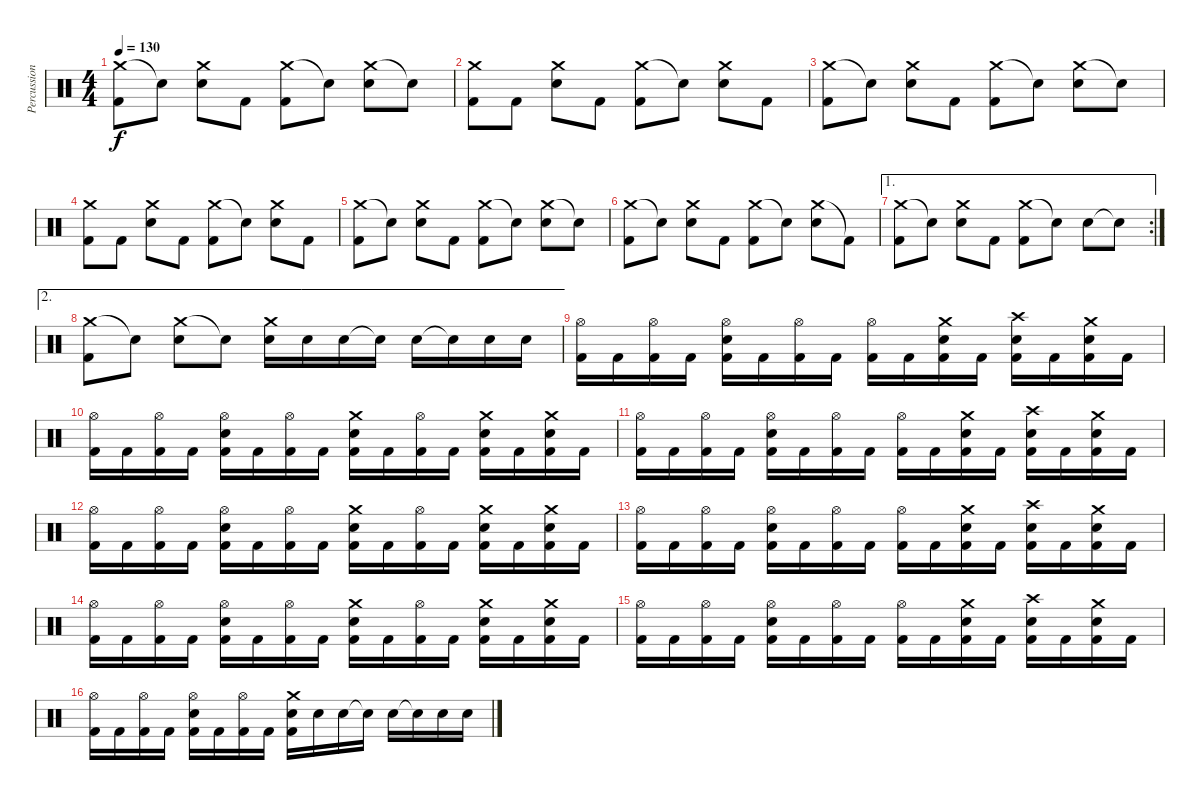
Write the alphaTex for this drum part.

\track ("Percussion" "Percussion") {instrument percussion}
\staff {score}
\articulation defaults
\ts (4 4)
\tempo 130
\clef neutral
\ks c
("Crash medium (hit)" "Kick (hit) 2").8{dy f} "Snare (hit)"{t}.8 ("Crash medium (hit)" "Electric Snare (hit)").8 "Kick (hit) 2".8 ("Crash medium (hit)" "Kick (hit) 2").8 "Snare (hit)"{t}.8 ("Crash medium (hit)" "Electric Snare (hit)").8 "Snare (hit)"{t}.8 |
("Crash medium (hit)" "Kick (hit) 2").8 "Kick (hit) 2".8 ("Crash medium (hit)" "Electric Snare (hit)").8 "Kick (hit) 2".8 ("Crash medium (hit)" "Kick (hit) 2").8 "Snare (hit)"{t}.8 ("Crash medium (hit)" "Electric Snare (hit)").8 "Kick (hit) 2".8 |
("Crash medium (hit)" "Kick (hit) 2").8 "Snare (hit)"{t}.8 ("Crash medium (hit)" "Electric Snare (hit)").8 "Kick (hit) 2".8 ("Crash medium (hit)" "Kick (hit) 2").8 "Snare (hit)"{t}.8 ("Crash medium (hit)" "Electric Snare (hit)").8 "Snare (hit)"{t}.8 |
("Crash medium (hit)" "Kick (hit) 2").8 "Kick (hit) 2".8 ("Crash medium (hit)" "Electric Snare (hit)").8 "Kick (hit) 2".8 ("Crash medium (hit)" "Kick (hit) 2").8 "Snare (hit)"{t}.8 ("Crash medium (hit)" "Electric Snare (hit)").8 "Kick (hit) 2".8 |
("Crash medium (hit)" "Kick (hit) 2").8 "Snare (hit)"{t}.8 ("Crash medium (hit)" "Electric Snare (hit)").8 "Kick (hit) 2".8 ("Crash medium (hit)" "Kick (hit) 2").8 "Snare (hit)"{t}.8 ("Crash medium (hit)" "Electric Snare (hit)").8 "Snare (hit)"{t}.8 |
("Crash medium (hit)" "Kick (hit) 2").8 "Snare (hit)"{t}.8 ("Crash medium (hit)" "Electric Snare (hit)").8 "Kick (hit) 2".8 ("Crash medium (hit)" "Kick (hit) 2").8 "Snare (hit)"{t}.8 ("Crash medium (hit)" "Electric Snare (hit)").8 "Kick (hit) 2"{t}.8 |
\ae 1
\rc 2
("Crash medium (hit)" "Kick (hit) 2").8 "Electric Snare (hit)"{t}.8 ("Crash medium (hit)" "Electric Snare (hit)").8 "Kick (hit) 2".8 ("Crash medium (hit)" "Kick (hit) 2").8 "Electric Snare (hit)"{t}.8 "Electric Snare (hit)".8 "Snare (hit)"{t}.8 |
\ae 2
("Crash medium (hit)" "Kick (hit) 2").8 "Snare (hit)"{t}.8 ("Crash medium (hit)" "Electric Snare (hit)").8 "Snare (hit)"{t}.8 ("Crash medium (hit)" "Electric Snare (hit)").16 "Electric Snare (hit)".16 "Electric Snare (hit)".16 "Electric Snare (hit)"{t}.16 "Electric Snare (hit)".16 "Electric Snare (hit)"{t}.16 "Electric Snare (hit)".16 "Electric Snare (hit)".16 |
("Hi-Hat (open)" "Kick (hit) 2").16 "Kick (hit) 2".16 ("Hi-Hat (open)" "Kick (hit) 2").16 "Kick (hit) 2".16 ("Hi-Hat (open)" "Electric Snare (hit)" "Kick (hit) 2").16 "Kick (hit) 2".16 ("Hi-Hat (open)" "Kick (hit) 2").16 "Kick (hit) 2".16 ("Hi-Hat (open)" "Kick (hit) 2").16 "Kick (hit) 2".16 ("Crash medium (hit)" "Electric Snare (hit)" "Kick (hit) 2").16 "Kick (hit) 2".16 ("Crash high (hit)" "Electric Snare (hit)" "Kick (hit) 2").16 "Kick (hit) 2".16 ("Crash medium (hit)" "Electric Snare (hit)" "Kick (hit) 2").16 "Kick (hit) 2".16 |
("Hi-Hat (open)" "Kick (hit) 2").16 "Kick (hit) 2".16 ("Hi-Hat (open)" "Kick (hit) 2").16 "Kick (hit) 2".16 ("Hi-Hat (open)" "Electric Snare (hit)" "Kick (hit) 2").16 "Kick (hit) 2".16 ("Hi-Hat (open)" "Kick (hit) 2").16 "Kick (hit) 2".16 ("Crash medium (hit)" "Electric Snare (hit)" "Kick (hit) 2").16 "Kick (hit) 2".16 ("Hi-Hat (open)" "Kick (hit) 2").16 "Kick (hit) 2".16 ("Crash medium (hit)" "Electric Snare (hit)" "Kick (hit) 2").16 "Kick (hit) 2".16 ("Crash medium (hit)" "Electric Snare (hit)" "Kick (hit) 2").16 "Kick (hit) 2".16 |
("Hi-Hat (open)" "Kick (hit) 2").16 "Kick (hit) 2".16 ("Hi-Hat (open)" "Kick (hit) 2").16 "Kick (hit) 2".16 ("Hi-Hat (open)" "Electric Snare (hit)" "Kick (hit) 2").16 "Kick (hit) 2".16 ("Hi-Hat (open)" "Kick (hit) 2").16 "Kick (hit) 2".16 ("Hi-Hat (open)" "Kick (hit) 2").16 "Kick (hit) 2".16 ("Crash medium (hit)" "Electric Snare (hit)" "Kick (hit) 2").16 "Kick (hit) 2".16 ("Crash high (hit)" "Electric Snare (hit)" "Kick (hit) 2").16 "Kick (hit) 2".16 ("Crash medium (hit)" "Electric Snare (hit)" "Kick (hit) 2").16 "Kick (hit) 2".16 |
("Hi-Hat (open)" "Kick (hit) 2").16 "Kick (hit) 2".16 ("Hi-Hat (open)" "Kick (hit) 2").16 "Kick (hit) 2".16 ("Hi-Hat (open)" "Electric Snare (hit)" "Kick (hit) 2").16 "Kick (hit) 2".16 ("Hi-Hat (open)" "Kick (hit) 2").16 "Kick (hit) 2".16 ("Crash medium (hit)" "Electric Snare (hit)" "Kick (hit) 2").16 "Kick (hit) 2".16 ("Hi-Hat (open)" "Kick (hit) 2").16 "Kick (hit) 2".16 ("Crash medium (hit)" "Electric Snare (hit)" "Kick (hit) 2").16 "Kick (hit) 2".16 ("Crash medium (hit)" "Electric Snare (hit)" "Kick (hit) 2").16 "Kick (hit) 2".16 |
("Hi-Hat (open)" "Kick (hit) 2").16 "Kick (hit) 2".16 ("Hi-Hat (open)" "Kick (hit) 2").16 "Kick (hit) 2".16 ("Hi-Hat (open)" "Electric Snare (hit)" "Kick (hit) 2").16 "Kick (hit) 2".16 ("Hi-Hat (open)" "Kick (hit) 2").16 "Kick (hit) 2".16 ("Hi-Hat (open)" "Kick (hit) 2").16 "Kick (hit) 2".16 ("Crash medium (hit)" "Electric Snare (hit)" "Kick (hit) 2").16 "Kick (hit) 2".16 ("Crash high (hit)" "Electric Snare (hit)" "Kick (hit) 2").16 "Kick (hit) 2".16 ("Crash medium (hit)" "Electric Snare (hit)" "Kick (hit) 2").16 "Kick (hit) 2".16 |
("Hi-Hat (open)" "Kick (hit) 2").16 "Kick (hit) 2".16 ("Hi-Hat (open)" "Kick (hit) 2").16 "Kick (hit) 2".16 ("Hi-Hat (open)" "Electric Snare (hit)" "Kick (hit) 2").16 "Kick (hit) 2".16 ("Hi-Hat (open)" "Kick (hit) 2").16 "Kick (hit) 2".16 ("Crash medium (hit)" "Electric Snare (hit)" "Kick (hit) 2").16 "Kick (hit) 2".16 ("Hi-Hat (open)" "Kick (hit) 2").16 "Kick (hit) 2".16 ("Crash medium (hit)" "Electric Snare (hit)" "Kick (hit) 2").16 "Kick (hit) 2".16 ("Crash medium (hit)" "Electric Snare (hit)" "Kick (hit) 2").16 "Kick (hit) 2".16 |
("Hi-Hat (open)" "Kick (hit) 2").16 "Kick (hit) 2".16 ("Hi-Hat (open)" "Kick (hit) 2").16 "Kick (hit) 2".16 ("Hi-Hat (open)" "Electric Snare (hit)" "Kick (hit) 2").16 "Kick (hit) 2".16 ("Hi-Hat (open)" "Kick (hit) 2").16 "Kick (hit) 2".16 ("Hi-Hat (open)" "Kick (hit) 2").16 "Kick (hit) 2".16 ("Crash medium (hit)" "Electric Snare (hit)" "Kick (hit) 2").16 "Kick (hit) 2".16 ("Crash high (hit)" "Electric Snare (hit)" "Kick (hit) 2").16 "Kick (hit) 2".16 ("Crash medium (hit)" "Electric Snare (hit)" "Kick (hit) 2").16 "Kick (hit) 2".16 |
("Hi-Hat (open)" "Kick (hit) 2").16 "Kick (hit) 2".16 ("Hi-Hat (open)" "Kick (hit) 2").16 "Kick (hit) 2".16 ("Hi-Hat (open)" "Electric Snare (hit)" "Kick (hit) 2").16 "Kick (hit) 2".16 ("Hi-Hat (open)" "Kick (hit) 2").16 "Kick (hit) 2".16 ("Crash medium (hit)" "Electric Snare (hit)" "Kick (hit) 2").16 "Electric Snare (hit)".16 "Electric Snare (hit)".16 "Electric Snare (hit)"{t}.16 "Electric Snare (hit)".16 "Electric Snare (hit)"{t}.16 "Electric Snare (hit)".16 "Electric Snare (hit)".16
